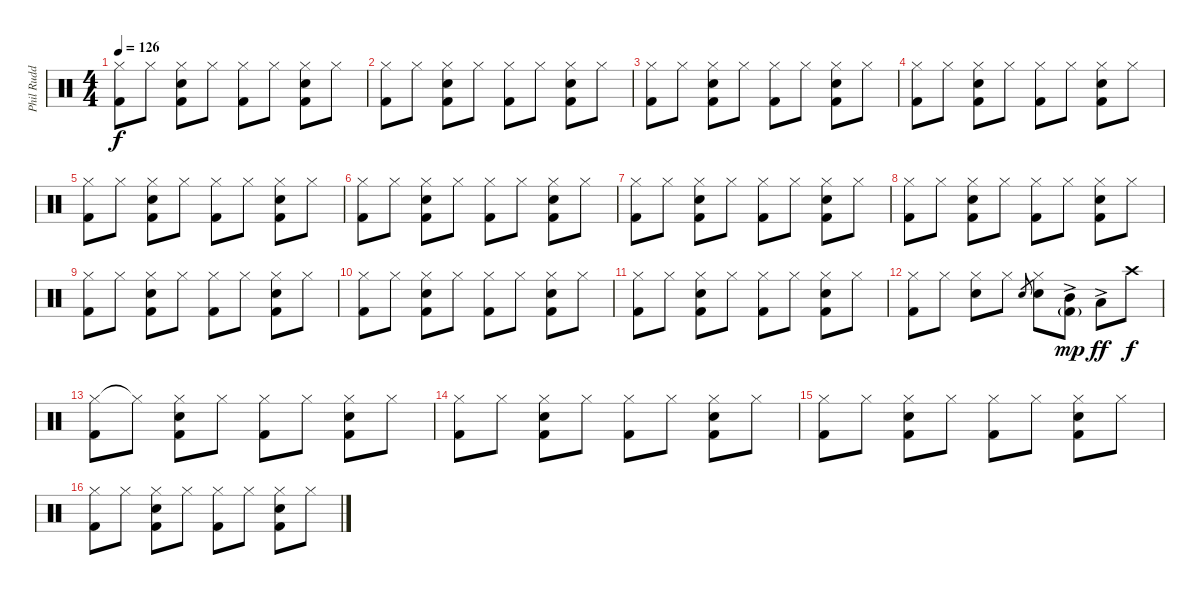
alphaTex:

\track ("Phil Rudd" "Phil Rudd") {instrument percussion}
\staff {score}
\articulation defaults
\ts (4 4)
\tempo 126
\clef neutral
\ks c
("Hi-Hat (closed)"{t} "Kick (hit) 2").8{dy f} "Hi-Hat (closed)".8 ("Hi-Hat (closed)" "Snare (hit) 2" "Kick (hit) 2").8 "Hi-Hat (closed)".8 ("Hi-Hat (closed)" "Kick (hit) 2").8 "Hi-Hat (closed)".8 ("Hi-Hat (closed)" "Snare (hit) 2" "Kick (hit) 2").8 "Hi-Hat (closed)".8 |
("Hi-Hat (closed)" "Kick (hit) 2").8 "Hi-Hat (closed)".8 ("Hi-Hat (closed)" "Snare (hit) 2" "Kick (hit) 2").8 "Hi-Hat (closed)".8 ("Hi-Hat (closed)" "Kick (hit) 2").8 "Hi-Hat (closed)".8 ("Hi-Hat (closed)" "Snare (hit) 2" "Kick (hit) 2").8 "Hi-Hat (closed)".8 |
("Hi-Hat (closed)" "Kick (hit) 2").8 "Hi-Hat (closed)".8 ("Hi-Hat (closed)" "Snare (hit) 2" "Kick (hit) 2").8 "Hi-Hat (closed)".8 ("Hi-Hat (closed)" "Kick (hit) 2").8 "Hi-Hat (closed)".8 ("Hi-Hat (closed)" "Snare (hit) 2" "Kick (hit) 2").8 "Hi-Hat (closed)".8 |
("Hi-Hat (closed)" "Kick (hit) 2").8 "Hi-Hat (closed)".8 ("Hi-Hat (closed)" "Snare (hit) 2" "Kick (hit) 2").8 "Hi-Hat (closed)".8 ("Hi-Hat (closed)" "Kick (hit) 2").8 "Hi-Hat (closed)".8 ("Hi-Hat (closed)" "Snare (hit) 2" "Kick (hit) 2").8 "Hi-Hat (closed)".8 |
("Hi-Hat (closed)" "Kick (hit) 2").8 "Hi-Hat (closed)".8 ("Hi-Hat (closed)" "Snare (hit) 2" "Kick (hit) 2").8 "Hi-Hat (closed)".8 ("Hi-Hat (closed)" "Kick (hit) 2").8 "Hi-Hat (closed)".8 ("Hi-Hat (closed)" "Snare (hit) 2" "Kick (hit) 2").8 "Hi-Hat (closed)".8 |
("Hi-Hat (closed)" "Kick (hit) 2").8 "Hi-Hat (closed)".8 ("Hi-Hat (closed)" "Snare (hit) 2" "Kick (hit) 2").8 "Hi-Hat (closed)".8 ("Hi-Hat (closed)" "Kick (hit) 2").8 "Hi-Hat (closed)".8 ("Hi-Hat (closed)" "Snare (hit) 2" "Kick (hit) 2").8 "Hi-Hat (closed)".8 |
("Hi-Hat (closed)" "Kick (hit) 2").8 "Hi-Hat (closed)".8 ("Hi-Hat (closed)" "Snare (hit) 2" "Kick (hit) 2").8 "Hi-Hat (closed)".8 ("Hi-Hat (closed)" "Kick (hit) 2").8 "Hi-Hat (closed)".8 ("Hi-Hat (closed)" "Snare (hit) 2" "Kick (hit) 2").8 "Hi-Hat (closed)".8 |
("Hi-Hat (closed)" "Kick (hit) 2").8 "Hi-Hat (closed)".8 ("Hi-Hat (closed)" "Snare (hit) 2" "Kick (hit) 2").8 "Hi-Hat (closed)".8 ("Hi-Hat (closed)" "Kick (hit) 2").8 "Hi-Hat (closed)".8 ("Hi-Hat (closed)" "Snare (hit) 2" "Kick (hit) 2").8 "Hi-Hat (closed)".8 |
("Hi-Hat (closed)" "Kick (hit) 2").8 "Hi-Hat (closed)".8 ("Hi-Hat (closed)" "Snare (hit) 2" "Kick (hit) 2").8 "Hi-Hat (closed)".8 ("Hi-Hat (closed)" "Kick (hit) 2").8 "Hi-Hat (closed)".8 ("Hi-Hat (closed)" "Snare (hit) 2" "Kick (hit) 2").8 "Hi-Hat (closed)".8 |
("Hi-Hat (closed)" "Kick (hit) 2").8 "Hi-Hat (closed)".8 ("Hi-Hat (closed)" "Snare (hit) 2" "Kick (hit) 2").8 "Hi-Hat (closed)".8 ("Hi-Hat (closed)" "Kick (hit) 2").8 "Hi-Hat (closed)".8 ("Hi-Hat (closed)" "Snare (hit) 2" "Kick (hit) 2").8 "Hi-Hat (closed)".8 |
("Hi-Hat (closed)" "Kick (hit) 2").8 "Hi-Hat (closed)".8 ("Hi-Hat (closed)" "Snare (hit) 2" "Kick (hit) 2").8 "Hi-Hat (closed)".8 ("Hi-Hat (closed)" "Kick (hit) 2").8 "Hi-Hat (closed)".8 ("Hi-Hat (closed)" "Snare (hit) 2" "Kick (hit) 2").8 "Hi-Hat (closed)".8 |
("Hi-Hat (closed)" "Kick (hit) 2").8 "Hi-Hat (closed)".8 ("Hi-Hat (closed)" "Snare (hit) 2").8 "Hi-Hat (closed)".8 "Snare (hit) 2".8{gr} ("Hi-Hat (closed)" "Snare (hit) 2").8 ("Mid Tom (hit)"{ac} "Kick (hit) 2"{g}).8{dy mp} "Low Tom (hit)"{ac}.8{dy ff} "Crash high (hit)".8{dy f} |
("Hi-Hat (closed)" "Kick (hit) 2").8 "Hi-Hat (closed)"{t}.8 ("Hi-Hat (closed)" "Snare (hit) 2" "Kick (hit) 2").8 "Hi-Hat (closed)".8 ("Hi-Hat (closed)" "Kick (hit) 2").8 "Hi-Hat (closed)".8 ("Hi-Hat (closed)" "Snare (hit) 2" "Kick (hit) 2").8 "Hi-Hat (closed)".8 |
("Hi-Hat (closed)" "Kick (hit) 2").8 "Hi-Hat (closed)".8 ("Hi-Hat (closed)" "Snare (hit) 2" "Kick (hit) 2").8 "Hi-Hat (closed)".8 ("Hi-Hat (closed)" "Kick (hit) 2").8 "Hi-Hat (closed)".8 ("Hi-Hat (closed)" "Snare (hit) 2" "Kick (hit) 2").8 "Hi-Hat (closed)".8 |
("Hi-Hat (closed)" "Kick (hit) 2").8 "Hi-Hat (closed)".8 ("Hi-Hat (closed)" "Snare (hit) 2" "Kick (hit) 2").8 "Hi-Hat (closed)".8 ("Hi-Hat (closed)" "Kick (hit) 2").8 "Hi-Hat (closed)".8 ("Hi-Hat (closed)" "Snare (hit) 2" "Kick (hit) 2").8 "Hi-Hat (closed)".8 |
("Hi-Hat (closed)" "Kick (hit) 2").8 "Hi-Hat (closed)".8 ("Hi-Hat (closed)" "Snare (hit) 2" "Kick (hit) 2").8 "Hi-Hat (closed)".8 ("Hi-Hat (closed)" "Kick (hit) 2").8 "Hi-Hat (closed)".8 ("Hi-Hat (closed)" "Snare (hit) 2" "Kick (hit) 2").8 "Hi-Hat (closed)".8
